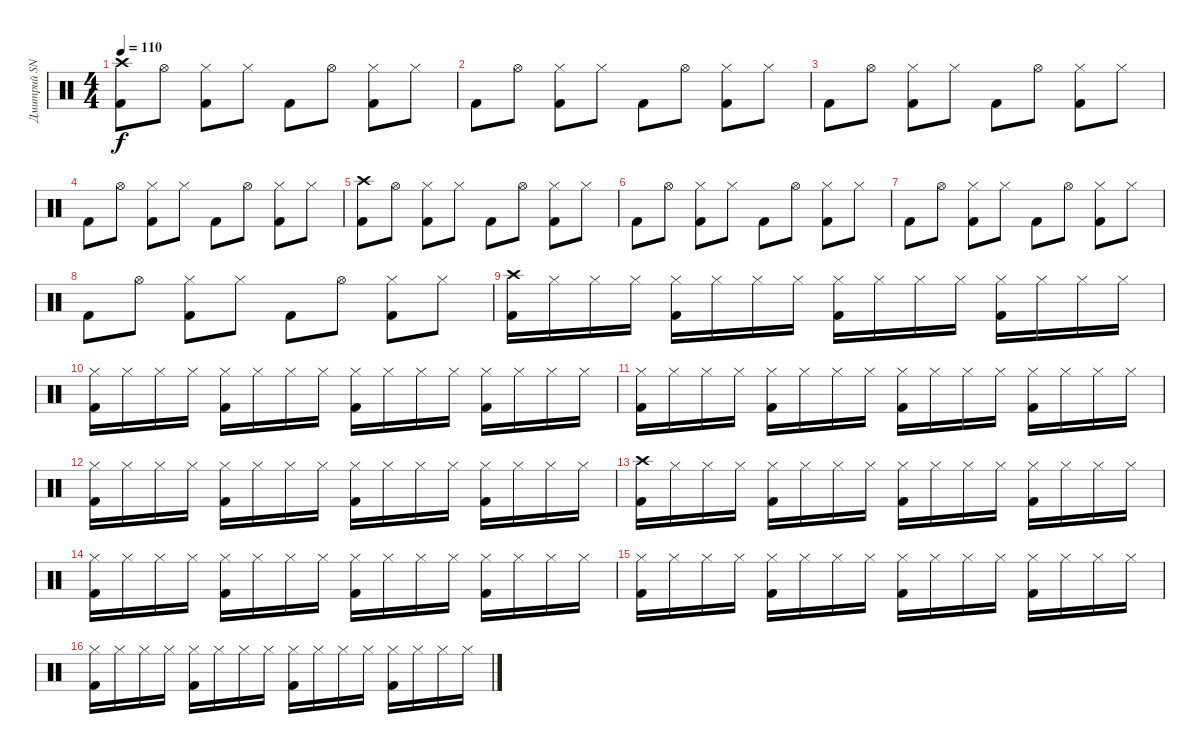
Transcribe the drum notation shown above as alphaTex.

\track ("Дмитрий SNAKE Хакимов" "Дмитрий SN") {instrument percussion}
\staff {score}
\articulation defaults
\ts (4 4)
\tempo 110
\clef neutral
\ks c
("Crash high (hit)" "Kick (hit) 2").8{dy f} "Hi-Hat (open)".8 ("Hi-Hat (closed)" "Kick (hit) 2").8 "Hi-Hat (closed)".8 "Kick (hit) 2".8 "Hi-Hat (open)".8 ("Hi-Hat (closed)" "Kick (hit) 2").8 "Hi-Hat (closed)".8 |
"Kick (hit) 2".8 "Hi-Hat (open)".8 ("Hi-Hat (closed)" "Kick (hit) 2").8 "Hi-Hat (closed)".8 "Kick (hit) 2".8 "Hi-Hat (open)".8 ("Hi-Hat (closed)" "Kick (hit) 2").8 "Hi-Hat (closed)".8 |
"Kick (hit) 2".8 "Hi-Hat (open)".8 ("Hi-Hat (closed)" "Kick (hit) 2").8 "Hi-Hat (closed)".8 "Kick (hit) 2".8 "Hi-Hat (open)".8 ("Hi-Hat (closed)" "Kick (hit) 2").8 "Hi-Hat (closed)".8 |
"Kick (hit) 2".8 "Hi-Hat (open)".8 ("Hi-Hat (closed)" "Kick (hit) 2").8 "Hi-Hat (closed)".8 "Kick (hit) 2".8 "Hi-Hat (open)".8 ("Hi-Hat (closed)" "Kick (hit) 2").8 "Hi-Hat (closed)".8 |
("Crash high (hit)" "Kick (hit) 2").8 "Hi-Hat (open)".8 ("Hi-Hat (closed)" "Kick (hit) 2").8 "Hi-Hat (closed)".8 "Kick (hit) 2".8 "Hi-Hat (open)".8 ("Hi-Hat (closed)" "Kick (hit) 2").8 "Hi-Hat (closed)".8 |
"Kick (hit) 2".8 "Hi-Hat (open)".8 ("Hi-Hat (closed)" "Kick (hit) 2").8 "Hi-Hat (closed)".8 "Kick (hit) 2".8 "Hi-Hat (open)".8 ("Hi-Hat (closed)" "Kick (hit) 2").8 "Hi-Hat (closed)".8 |
"Kick (hit) 2".8 "Hi-Hat (open)".8 ("Hi-Hat (closed)" "Kick (hit) 2").8 "Hi-Hat (closed)".8 "Kick (hit) 2".8 "Hi-Hat (open)".8 ("Hi-Hat (closed)" "Kick (hit) 2").8 "Hi-Hat (closed)".8 |
"Kick (hit) 2".8 "Hi-Hat (open)".8 ("Hi-Hat (closed)" "Kick (hit) 2").8 "Hi-Hat (closed)".8 "Kick (hit) 2".8 "Hi-Hat (open)".8 ("Hi-Hat (closed)" "Kick (hit) 2").8 "Hi-Hat (closed)".8 |
("Crash high (hit)" "Kick (hit) 2").16 "Hi-Hat (closed)".16 "Hi-Hat (closed)".16 "Hi-Hat (closed)".16 ("Hi-Hat (closed)" "Kick (hit) 2").16 "Hi-Hat (closed)".16 "Hi-Hat (closed)".16 "Hi-Hat (closed)".16 ("Hi-Hat (closed)" "Kick (hit) 2").16 "Hi-Hat (closed)".16 "Hi-Hat (closed)".16 "Hi-Hat (closed)".16 ("Hi-Hat (closed)" "Kick (hit) 2").16 "Hi-Hat (closed)".16 "Hi-Hat (closed)".16 "Hi-Hat (closed)".16 |
("Hi-Hat (closed)" "Kick (hit) 2").16 "Hi-Hat (closed)".16 "Hi-Hat (closed)".16 "Hi-Hat (closed)".16 ("Hi-Hat (closed)" "Kick (hit) 2").16 "Hi-Hat (closed)".16 "Hi-Hat (closed)".16 "Hi-Hat (closed)".16 ("Hi-Hat (closed)" "Kick (hit) 2").16 "Hi-Hat (closed)".16 "Hi-Hat (closed)".16 "Hi-Hat (closed)".16 ("Hi-Hat (closed)" "Kick (hit) 2").16 "Hi-Hat (closed)".16 "Hi-Hat (closed)".16 "Hi-Hat (closed)".16 |
("Hi-Hat (closed)" "Kick (hit) 2").16 "Hi-Hat (closed)".16 "Hi-Hat (closed)".16 "Hi-Hat (closed)".16 ("Hi-Hat (closed)" "Kick (hit) 2").16 "Hi-Hat (closed)".16 "Hi-Hat (closed)".16 "Hi-Hat (closed)".16 ("Hi-Hat (closed)" "Kick (hit) 2").16 "Hi-Hat (closed)".16 "Hi-Hat (closed)".16 "Hi-Hat (closed)".16 ("Hi-Hat (closed)" "Kick (hit) 2").16 "Hi-Hat (closed)".16 "Hi-Hat (closed)".16 "Hi-Hat (closed)".16 |
("Hi-Hat (closed)" "Kick (hit) 2").16 "Hi-Hat (closed)".16 "Hi-Hat (closed)".16 "Hi-Hat (closed)".16 ("Hi-Hat (closed)" "Kick (hit) 2").16 "Hi-Hat (closed)".16 "Hi-Hat (closed)".16 "Hi-Hat (closed)".16 ("Hi-Hat (closed)" "Kick (hit) 2").16 "Hi-Hat (closed)".16 "Hi-Hat (closed)".16 "Hi-Hat (closed)".16 ("Hi-Hat (closed)" "Kick (hit) 2").16 "Hi-Hat (closed)".16 "Hi-Hat (closed)".16 "Hi-Hat (closed)".16 |
("Crash high (hit)" "Kick (hit) 2").16 "Hi-Hat (closed)".16 "Hi-Hat (closed)".16 "Hi-Hat (closed)".16 ("Hi-Hat (closed)" "Kick (hit) 2").16 "Hi-Hat (closed)".16 "Hi-Hat (closed)".16 "Hi-Hat (closed)".16 ("Hi-Hat (closed)" "Kick (hit) 2").16 "Hi-Hat (closed)".16 "Hi-Hat (closed)".16 "Hi-Hat (closed)".16 ("Hi-Hat (closed)" "Kick (hit) 2").16 "Hi-Hat (closed)".16 "Hi-Hat (closed)".16 "Hi-Hat (closed)".16 |
("Hi-Hat (closed)" "Kick (hit) 2").16 "Hi-Hat (closed)".16 "Hi-Hat (closed)".16 "Hi-Hat (closed)".16 ("Hi-Hat (closed)" "Kick (hit) 2").16 "Hi-Hat (closed)".16 "Hi-Hat (closed)".16 "Hi-Hat (closed)".16 ("Hi-Hat (closed)" "Kick (hit) 2").16 "Hi-Hat (closed)".16 "Hi-Hat (closed)".16 "Hi-Hat (closed)".16 ("Hi-Hat (closed)" "Kick (hit) 2").16 "Hi-Hat (closed)".16 "Hi-Hat (closed)".16 "Hi-Hat (closed)".16 |
("Hi-Hat (closed)" "Kick (hit) 2").16 "Hi-Hat (closed)".16 "Hi-Hat (closed)".16 "Hi-Hat (closed)".16 ("Hi-Hat (closed)" "Kick (hit) 2").16 "Hi-Hat (closed)".16 "Hi-Hat (closed)".16 "Hi-Hat (closed)".16 ("Hi-Hat (closed)" "Kick (hit) 2").16 "Hi-Hat (closed)".16 "Hi-Hat (closed)".16 "Hi-Hat (closed)".16 ("Hi-Hat (closed)" "Kick (hit) 2").16 "Hi-Hat (closed)".16 "Hi-Hat (closed)".16 "Hi-Hat (closed)".16 |
("Hi-Hat (closed)" "Kick (hit) 2").16 "Hi-Hat (closed)".16 "Hi-Hat (closed)".16 "Hi-Hat (closed)".16 ("Hi-Hat (closed)" "Kick (hit) 2").16 "Hi-Hat (closed)".16 "Hi-Hat (closed)".16 "Hi-Hat (closed)".16 ("Hi-Hat (closed)" "Kick (hit) 2").16 "Hi-Hat (closed)".16 "Hi-Hat (closed)".16 "Hi-Hat (closed)".16 ("Hi-Hat (closed)" "Kick (hit) 2").16 "Hi-Hat (closed)".16 "Hi-Hat (closed)".16 "Hi-Hat (closed)".16
